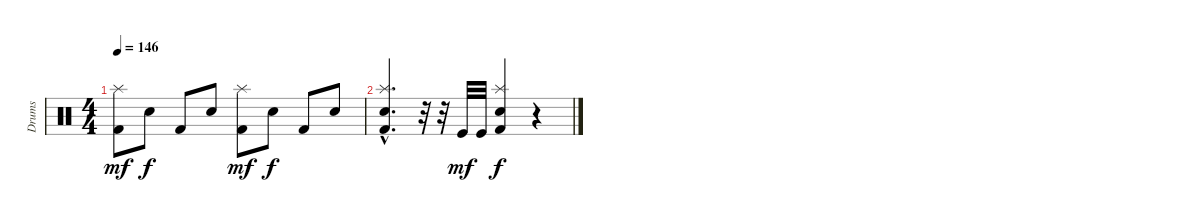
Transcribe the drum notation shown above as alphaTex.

\track ("Drums" "Drums") {instrument percussion}
\staff {score}
\articulation defaults
\ts (4 4)
\tempo 146
\clef neutral
\ks c
("Kick (hit) 2" "Splash (hit)").8{dy mf} "Electric Snare (hit)".8{dy f} "Kick (hit) 2".8 "Electric Snare (hit)".8 ("Kick (hit) 2" "Splash (hit)").8{dy mf} "Electric Snare (hit)".8{dy f} "Kick (hit) 2".8 "Electric Snare (hit)".8 |
("Electric Snare (hit)"{hac} "Splash (hit)"{hac} "Kick (hit) 2"{hac}).4{d} r.32 r.32 "Kick (hit)".32{dy mf} "Kick (hit)".32 ("Electric Snare (hit)" "Splash (hit)" "Kick (hit) 2").4{dy f} r.4
